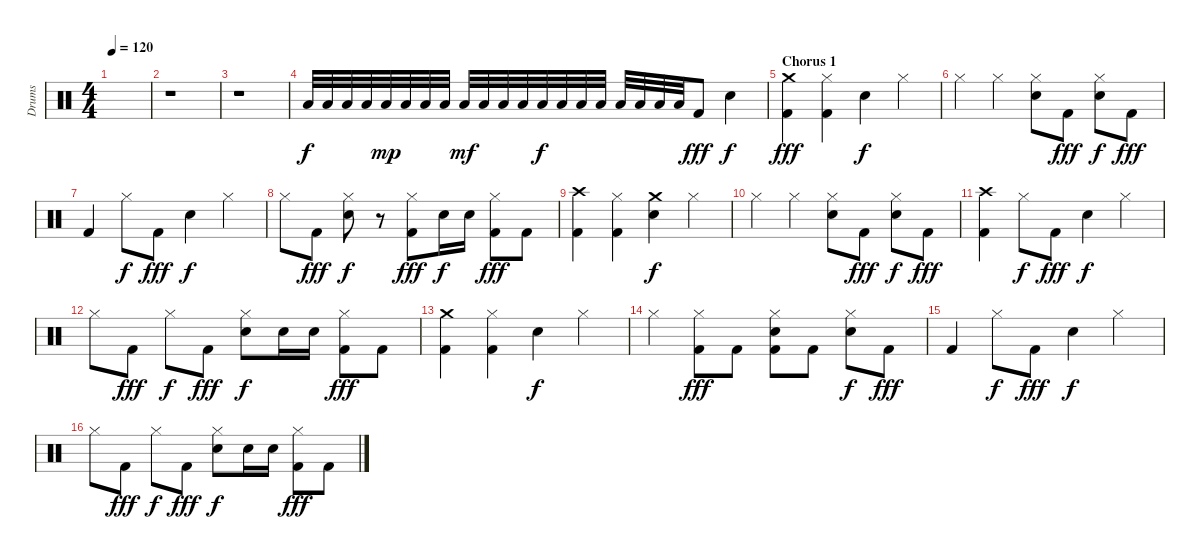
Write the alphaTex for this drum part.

\track ("Drums" "Drums") {instrument percussion}
\staff {score}
\articulation defaults
\ts (4 4)
\tempo 120
\clef neutral
\ks c
|
r.1 |
r.1 |
"Low Tom (hit)".32 "Low Tom (hit)".32 "Low Tom (hit)".32 "Low Tom (hit)".32 "Low Tom (hit)".32{dy mp} "Low Tom (hit)".32 "Low Tom (hit)".32 "Low Tom (hit)".32 "Low Tom (hit)".32{dy mf} "Low Tom (hit)".32 "Low Tom (hit)".32 "Low Tom (hit)".32 "Low Tom (hit)".32{dy f} "Low Tom (hit)".32 "Low Tom (hit)".32 "Low Tom (hit)".32 "Low Tom (hit)".32 "Low Tom (hit)".32 "Low Tom (hit)".32 "Low Tom (hit)".32 "Kick (hit) 2".8{dy fff} "Snare (hit) 2".4{dy f} |
\section ("" "Chorus 1")
("Kick (hit) 2" "Crash medium (hit)").4{dy fff} ("Kick (hit) 2" "Hi-Hat (closed)").4 "Snare (hit) 2".4{dy f} "Hi-Hat (closed)".4 |
"Hi-Hat (closed)".4 "Hi-Hat (closed)".4 ("Hi-Hat (closed)" "Snare (hit) 2").8 "Kick (hit) 2".8{dy fff} ("Hi-Hat (closed)" "Snare (hit) 2").8{dy f} "Kick (hit) 2".8{dy fff} |
"Kick (hit) 2".4 "Hi-Hat (closed)".8{dy f} "Kick (hit) 2".8{dy fff} "Snare (hit) 2".4{dy f} "Hi-Hat (closed)".4 |
"Hi-Hat (closed)".8 "Kick (hit) 2".8{dy fff} ("Hi-Hat (closed)" "Snare (hit) 2").8{dy f} r.8 ("Kick (hit) 2" "Hi-Hat (closed)").8{dy fff} "Snare (hit) 2".16{dy f} "Snare (hit) 2".16 ("Kick (hit) 2" "Hi-Hat (closed)").8{dy fff} "Kick (hit) 2".8 |
("Kick (hit) 2" "Crash high (hit)").4 ("Kick (hit) 2" "Hi-Hat (closed)").4 ("Snare (hit) 2" "Crash medium (hit)").4{dy f} "Hi-Hat (closed)".4 |
"Hi-Hat (closed)".4 "Hi-Hat (closed)".4 ("Hi-Hat (closed)" "Snare (hit) 2").8 "Kick (hit) 2".8{dy fff} ("Hi-Hat (closed)" "Snare (hit) 2").8{dy f} "Kick (hit) 2".8{dy fff} |
("Kick (hit) 2" "Crash high (hit)").4 "Hi-Hat (closed)".8{dy f} "Kick (hit) 2".8{dy fff} "Snare (hit) 2".4{dy f} "Hi-Hat (closed)".4 |
"Hi-Hat (closed)".8 "Kick (hit) 2".8{dy fff} "Hi-Hat (closed)".8{dy f} "Kick (hit) 2".8{dy fff} ("Hi-Hat (closed)" "Snare (hit) 2").8{dy f} "Snare (hit) 2".16 "Snare (hit) 2".16 ("Kick (hit) 2" "Hi-Hat (closed)").8{dy fff} "Kick (hit) 2".8 |
("Kick (hit) 2" "Crash medium (hit)").4 ("Kick (hit) 2" "Hi-Hat (closed)").4 "Snare (hit) 2".4{dy f} "Hi-Hat (closed)".4 |
"Hi-Hat (closed)".4 ("Kick (hit) 2" "Hi-Hat (closed)").8{dy fff} "Kick (hit) 2".8 ("Kick (hit) 2" "Hi-Hat (closed)" "Snare (hit) 2").8 "Kick (hit) 2".8 ("Hi-Hat (closed)" "Snare (hit) 2").8{dy f} "Kick (hit) 2".8{dy fff} |
"Kick (hit) 2".4 "Hi-Hat (closed)".8{dy f} "Kick (hit) 2".8{dy fff} "Snare (hit) 2".4{dy f} "Hi-Hat (closed)".4 |
"Hi-Hat (closed)".8 "Kick (hit) 2".8{dy fff} "Hi-Hat (closed)".8{dy f} "Kick (hit) 2".8{dy fff} ("Hi-Hat (closed)" "Snare (hit) 2").8{dy f} "Snare (hit) 2".16 "Snare (hit) 2".16 ("Kick (hit) 2" "Hi-Hat (closed)").8{dy fff} "Kick (hit) 2".8
